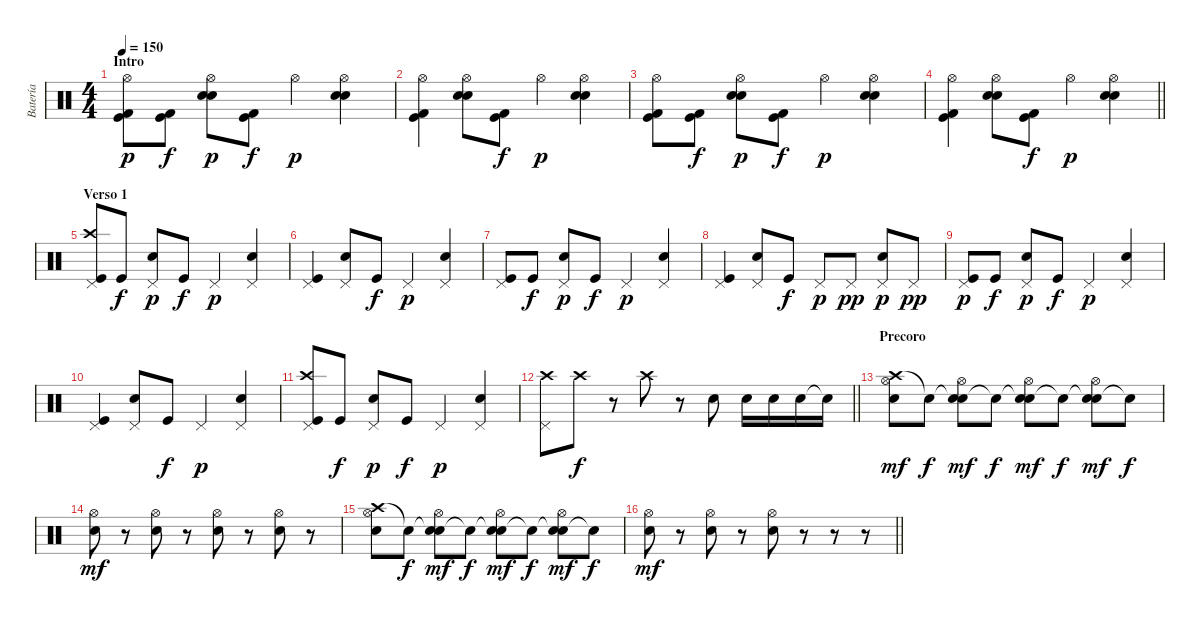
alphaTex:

\track ("Batería" "Batería") {instrument percussion}
\staff {score}
\articulation defaults
\ts (4 4)
\section ("" "Intro")
\tempo 150
\clef neutral
\ks c
("Kick (hit)" "Kick (hit) 2" "Hi-Hat (open)").8{dy p} ("Kick (hit)" "Kick (hit) 2").8{dy f} ("Electric Snare (hit)" "Snare (hit) 2" "Hi-Hat (open)").8{dy p} ("Kick (hit)" "Kick (hit) 2").8{dy f} "Hi-Hat (open)".4{dy p} ("Electric Snare (hit)" "Snare (hit) 2" "Hi-Hat (open)").4 |
("Kick (hit)" "Kick (hit) 2" "Hi-Hat (open)").4 ("Snare (hit) 2" "Electric Snare (hit)" "Hi-Hat (open)").8 ("Kick (hit)" "Kick (hit) 2").8{dy f} "Hi-Hat (open)".4{dy p} ("Electric Snare (hit)" "Snare (hit) 2" "Hi-Hat (open)").4 |
("Kick (hit)" "Kick (hit) 2" "Hi-Hat (open)").8 ("Kick (hit)" "Kick (hit) 2").8{dy f} ("Electric Snare (hit)" "Snare (hit) 2" "Hi-Hat (open)").8{dy p} ("Kick (hit)" "Kick (hit) 2").8{dy f} "Hi-Hat (open)".4{dy p} ("Electric Snare (hit)" "Snare (hit) 2" "Hi-Hat (open)").4 |
\barLineRight lightlight
("Kick (hit)" "Kick (hit) 2" "Hi-Hat (open)").4 ("Snare (hit) 2" "Electric Snare (hit)" "Hi-Hat (open)").8 ("Kick (hit)" "Kick (hit) 2").8{dy f} "Hi-Hat (open)".4{dy p} ("Electric Snare (hit)" "Snare (hit) 2" "Hi-Hat (open)").4 |
\section ("" "Verso 1")
("Kick (hit)" "Crash high (hit)" "Pedal Hi-Hat (hit)").8 "Kick (hit)".8{dy f} ("Electric Snare (hit)" "Pedal Hi-Hat (hit)").8{dy p} "Kick (hit)".8{dy f} "Pedal Hi-Hat (hit)".4{dy p} ("Electric Snare (hit)" "Pedal Hi-Hat (hit)").4 |
("Kick (hit)" "Pedal Hi-Hat (hit)").4 ("Snare (hit) 2" "Pedal Hi-Hat (hit)").8 "Kick (hit)".8{dy f} "Pedal Hi-Hat (hit)".4{dy p} ("Electric Snare (hit)" "Pedal Hi-Hat (hit)").4 |
("Kick (hit)" "Pedal Hi-Hat (hit)").8 "Kick (hit)".8{dy f} ("Electric Snare (hit)" "Pedal Hi-Hat (hit)").8{dy p} "Kick (hit)".8{dy f} "Pedal Hi-Hat (hit)".4{dy p} ("Electric Snare (hit)" "Pedal Hi-Hat (hit)").4 |
("Kick (hit)" "Pedal Hi-Hat (hit)").4 ("Snare (hit) 2" "Pedal Hi-Hat (hit)").8 "Kick (hit)".8{dy f} "Pedal Hi-Hat (hit)".8{dy p} "Pedal Hi-Hat (hit)".8{dy pp} ("Electric Snare (hit)" "Pedal Hi-Hat (hit)").8{dy p} "Pedal Hi-Hat (hit)".8{dy pp} |
("Kick (hit)" "Pedal Hi-Hat (hit)").8{dy p} "Kick (hit)".8{dy f} ("Electric Snare (hit)" "Pedal Hi-Hat (hit)").8{dy p} "Kick (hit)".8{dy f} "Pedal Hi-Hat (hit)".4{dy p} ("Electric Snare (hit)" "Pedal Hi-Hat (hit)").4 |
("Kick (hit)" "Pedal Hi-Hat (hit)").4 ("Snare (hit) 2" "Pedal Hi-Hat (hit)").8 "Kick (hit)".8{dy f} "Pedal Hi-Hat (hit)".4{dy p} ("Electric Snare (hit)" "Pedal Hi-Hat (hit)").4 |
("Kick (hit)" "Crash high (hit)" "Pedal Hi-Hat (hit)").8 "Kick (hit)".8{dy f} ("Electric Snare (hit)" "Pedal Hi-Hat (hit)").8{dy p} "Kick (hit)".8{dy f} "Pedal Hi-Hat (hit)".4{dy p} ("Electric Snare (hit)" "Pedal Hi-Hat (hit)").4 |
\barLineRight lightlight
("Crash high (hit)" "Pedal Hi-Hat (hit)").8 "Crash high (hit)".8{dy f} r.8 "Crash high (hit)".8 r.8 "Electric Snare (hit)".8 "Electric Snare (hit)".16 "Electric Snare (hit)".16 "Electric Snare (hit)".16 "Electric Snare (hit)"{t}.16 |
\section ("" "Precoro")
("Crash high (hit)" "Hi-Hat (open)" "Electric Snare (hit)").8{dy mf} "Snare (hit)"{t}.8{dy f} ("Snare (hit)"{t} "Hi-Hat (open)" "Electric Snare (hit)").8{dy mf} "Snare (hit)"{t}.8{dy f} ("Snare (hit)"{t} "Hi-Hat (open)" "Electric Snare (hit)").8{dy mf} "Snare (hit)"{t}.8{dy f} ("Snare (hit)"{t} "Hi-Hat (open)" "Electric Snare (hit)").8{dy mf} "Snare (hit)"{t}.8{dy f} |
("Hi-Hat (open)" "Electric Snare (hit)").8{dy mf} r.8 ("Hi-Hat (open)" "Electric Snare (hit)").8 r.8 ("Hi-Hat (open)" "Electric Snare (hit)").8 r.8 ("Hi-Hat (open)" "Electric Snare (hit)").8 r.8 |
("Crash high (hit)" "Hi-Hat (open)" "Electric Snare (hit)").8 "Snare (hit)"{t}.8{dy f} ("Snare (hit)"{t} "Hi-Hat (open)" "Electric Snare (hit)").8{dy mf} "Snare (hit)"{t}.8{dy f} ("Snare (hit)"{t} "Hi-Hat (open)" "Electric Snare (hit)").8{dy mf} "Snare (hit)"{t}.8{dy f} ("Snare (hit)"{t} "Hi-Hat (open)" "Electric Snare (hit)").8{dy mf} "Snare (hit)"{t}.8{dy f} |
\barLineRight lightlight
("Hi-Hat (open)" "Electric Snare (hit)").8{dy mf} r.8 ("Hi-Hat (open)" "Electric Snare (hit)").8 r.8 ("Hi-Hat (open)" "Electric Snare (hit)").8 r.8 r.8 r.8
